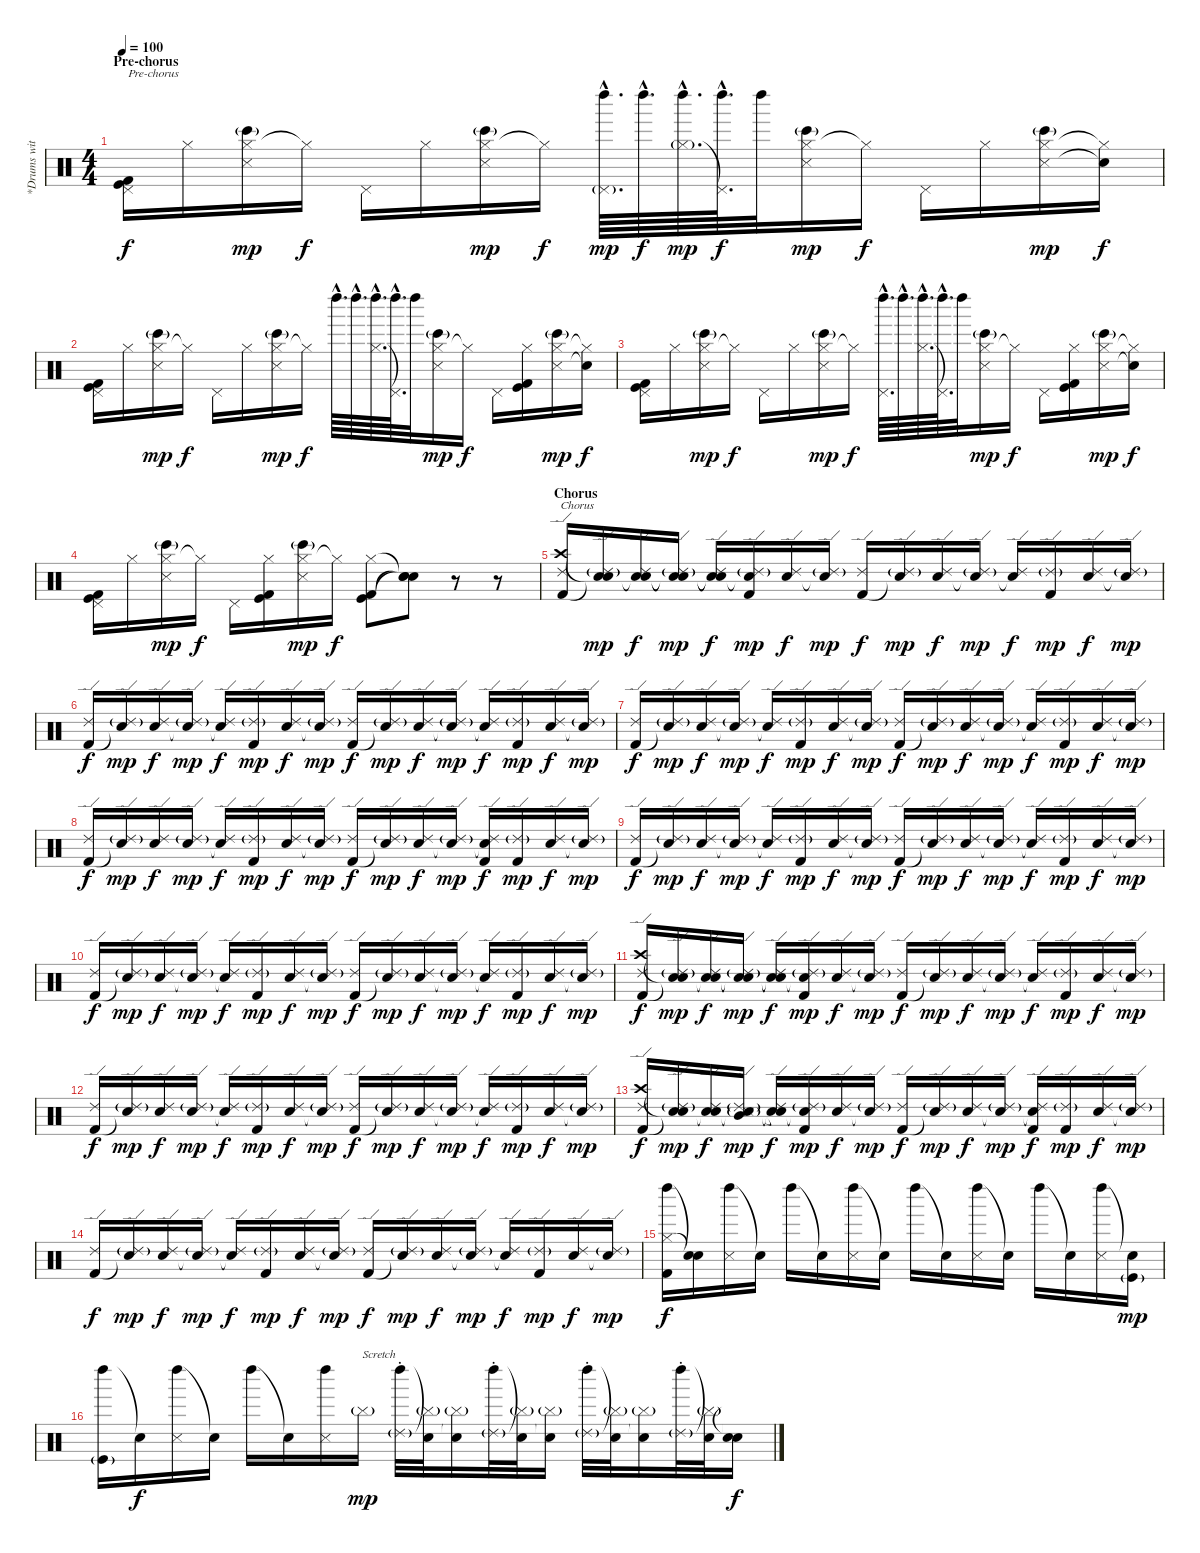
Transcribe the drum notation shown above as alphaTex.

\track ("*Drums with sampled drums (Rob and Joe)" "*Drums wit") {instrument percussion}
\staff {score}
\articulation defaults
\ts (4 4)
\section ("" "Pre-chorus")
\tempo 100
\clef neutral
\ks c
("Pedal Hi-Hat (hit)" "Kick (hit)" "Kick (hit) 2").16{txt "Pre-chorus" dy f} "Hi-Hat (closed)".16 ("Hi-Hat (closed)" "Snare (side stick) 3" "Bongo High (hit)"{g}).16{dy mp} "Hi-Hat (closed)"{t}.16{dy f} "Pedal Hi-Hat (hit)".16 "Hi-Hat (closed)".16 ("Hi-Hat (closed)" "Snare (side stick) 3" "Bongo High (hit)"{g}).16{dy mp} "Hi-Hat (closed)"{t}.16{dy f} ("Left Maraca (hit)"{hac} "Pedal Hi-Hat (hit)"{g hac}).64{d dy mp} "Left Maraca (hit)"{hac}.64{d dy f} ("Left Maraca (hit)"{hac} "Hi-Hat (closed)"{g hac}).64{d dy mp} ("Left Maraca (hit)"{hac} "Pedal Hi-Hat (hit)"{hac t}).64{d dy f} "Left Maraca (hit)".32 ("Hi-Hat (closed)" "Snare (side stick) 3" "Bongo High (hit)"{g}).16{dy mp} "Hi-Hat (closed)"{t}.16{dy f} "Pedal Hi-Hat (hit)".16 "Hi-Hat (closed)".16 ("Hi-Hat (closed)" "Snare (side stick) 3" "Bongo High (hit)"{g}).16{dy mp} ("Hi-Hat (closed)"{t} "Snare (hit)"{t}).16{dy f} |
("Pedal Hi-Hat (hit)" "Kick (hit)" "Kick (hit) 2").16 "Hi-Hat (closed)".16 ("Hi-Hat (closed)" "Snare (side stick) 3" "Bongo High (hit)"{g}).16{dy mp} "Hi-Hat (closed)"{t}.16{dy f} "Pedal Hi-Hat (hit)".16 "Hi-Hat (closed)".16 ("Hi-Hat (closed)" "Snare (side stick) 3" "Bongo High (hit)"{g}).16{dy mp} "Hi-Hat (closed)"{t}.16{dy f} "Left Maraca (hit)"{hac}.64{d} "Left Maraca (hit)"{hac}.64{d} ("Left Maraca (hit)"{hac} "Hi-Hat (closed)"{hac}).64{d} ("Left Maraca (hit)"{hac} "Pedal Hi-Hat (hit)"{hac t}).64{d} "Left Maraca (hit)".32 ("Hi-Hat (closed)" "Snare (side stick) 3" "Bongo High (hit)"{g}).16{dy mp} "Hi-Hat (closed)"{t}.16{dy f} "Pedal Hi-Hat (hit)".16 ("Hi-Hat (closed)" "Kick (hit)" "Kick (hit) 2").16 ("Hi-Hat (closed)" "Snare (side stick) 3" "Bongo High (hit)"{g}).16{dy mp} ("Hi-Hat (closed)"{t} "Snare (hit)"{t}).16{dy f} |
("Pedal Hi-Hat (hit)" "Kick (hit)" "Kick (hit) 2").16 "Hi-Hat (closed)".16 ("Hi-Hat (closed)" "Snare (side stick) 3" "Bongo High (hit)"{g}).16{dy mp} "Hi-Hat (closed)"{t}.16{dy f} "Pedal Hi-Hat (hit)".16 "Hi-Hat (closed)".16 ("Hi-Hat (closed)" "Snare (side stick) 3" "Bongo High (hit)"{g}).16{dy mp} "Hi-Hat (closed)"{t}.16{dy f} ("Left Maraca (hit)"{hac} "Pedal Hi-Hat (hit)"{hac}).64{d} "Left Maraca (hit)"{hac}.64{d} ("Left Maraca (hit)"{hac} "Hi-Hat (closed)"{hac}).64{d} ("Left Maraca (hit)"{hac} "Pedal Hi-Hat (hit)"{hac t}).64{d} "Left Maraca (hit)".32 ("Hi-Hat (closed)" "Snare (side stick) 3" "Bongo High (hit)"{g}).16{dy mp} "Hi-Hat (closed)"{t}.16{dy f} "Pedal Hi-Hat (hit)".16 ("Hi-Hat (closed)" "Kick (hit)" "Kick (hit) 2").16 ("Hi-Hat (closed)" "Snare (side stick) 3" "Bongo High (hit)"{g}).16{dy mp} ("Hi-Hat (closed)"{t} "Snare (hit)"{t}).16{dy f} |
("Pedal Hi-Hat (hit)" "Kick (hit)" "Kick (hit) 2").16 "Hi-Hat (closed)".16 ("Hi-Hat (closed)" "Snare (side stick) 3" "Bongo High (hit)"{g}).16{dy mp} "Hi-Hat (closed)"{t}.16{dy f} "Pedal Hi-Hat (hit)".16 ("Hi-Hat (closed)" "Kick (hit)" "Kick (hit) 2").16 ("Hi-Hat (closed)" "Snare (side stick) 3" "Bongo High (hit)"{g}).16{dy mp} "Hi-Hat (closed)"{t}.16{dy f} ("Hi-Hat (closed)" "Kick (hit)" "Kick (hit) 2").8 ("Snare (hit)"{t} "Snare (hit)"{t} "Snare (hit)"{t}).8 r.8 r.8 |
\section ("" "Chorus")
("Crash high (hit)" "Ride (edge) 2" "Kick (hit) 2").16{txt "Chorus"} ("Snare (hit)"{t} "Ride (edge) 2"{g} "Snare (hit)"{t}).16{dy mp} ("Snare (hit)"{t} "Ride (edge) 2" "Electric Snare (hit)").16{dy f} ("Snare (hit)"{t} "Ride (edge) 2"{g} "Snare (hit)"{t}).16{dy mp} ("Snare (hit)"{t} "Ride (edge) 2" "Snare (hit)"{t}).16{dy f} ("Snare (hit)"{t} "Ride (edge) 2"{g} "Kick (hit) 2").16{dy mp} ("Ride (edge) 2" "Electric Snare (hit)").16{dy f} ("Ride (edge) 2"{g} "Snare (hit)"{t}).16{dy mp} ("Ride (edge) 2" "Kick (hit) 2").16{dy f} ("Ride (edge) 2"{g} "Snare (hit)"{t}).16{dy mp} ("Ride (edge) 2" "Electric Snare (hit)").16{dy f} ("Ride (edge) 2"{g} "Snare (hit)"{t}).16{dy mp} ("Ride (edge) 2" "Snare (hit)"{t}).16{dy f} ("Ride (edge) 2"{g} "Kick (hit) 2").16{dy mp} ("Ride (edge) 2" "Electric Snare (hit)").16{dy f} ("Ride (edge) 2"{g} "Snare (hit)"{t}).16{dy mp} |
("Ride (edge) 2" "Kick (hit) 2").16{dy f} ("Ride (edge) 2"{g} "Snare (hit)"{t}).16{dy mp} ("Ride (edge) 2" "Electric Snare (hit)").16{dy f} ("Ride (edge) 2"{g} "Snare (hit)"{t}).16{dy mp} ("Ride (edge) 2" "Snare (hit)"{t}).16{dy f} ("Ride (edge) 2"{g} "Kick (hit) 2").16{dy mp} ("Ride (edge) 2" "Electric Snare (hit)").16{dy f} ("Ride (edge) 2"{g} "Snare (hit)"{t}).16{dy mp} ("Ride (edge) 2" "Kick (hit) 2").16{dy f} ("Ride (edge) 2"{g} "Snare (hit)"{t}).16{dy mp} ("Ride (edge) 2" "Electric Snare (hit)").16{dy f} ("Ride (edge) 2"{g} "Snare (hit)"{t}).16{dy mp} ("Ride (edge) 2" "Snare (hit)"{t}).16{dy f} ("Ride (edge) 2"{g} "Kick (hit) 2").16{dy mp} ("Ride (edge) 2" "Electric Snare (hit)").16{dy f} ("Ride (edge) 2"{g} "Snare (hit)"{t}).16{dy mp} |
("Ride (edge) 2" "Kick (hit) 2").16{dy f} ("Ride (edge) 2"{g} "Snare (hit)"{t}).16{dy mp} ("Ride (edge) 2" "Electric Snare (hit)").16{dy f} ("Ride (edge) 2"{g} "Snare (hit)"{t}).16{dy mp} ("Ride (edge) 2" "Snare (hit)"{t}).16{dy f} ("Ride (edge) 2"{g} "Kick (hit) 2").16{dy mp} ("Ride (edge) 2" "Electric Snare (hit)").16{dy f} ("Ride (edge) 2"{g} "Snare (hit)"{t}).16{dy mp} ("Ride (edge) 2" "Kick (hit) 2").16{dy f} ("Ride (edge) 2"{g} "Snare (hit)"{t}).16{dy mp} ("Ride (edge) 2" "Electric Snare (hit)").16{dy f} ("Ride (edge) 2"{g} "Snare (hit)"{t}).16{dy mp} ("Ride (edge) 2" "Snare (hit)"{t}).16{dy f} ("Ride (edge) 2"{g} "Kick (hit) 2").16{dy mp} ("Ride (edge) 2" "Electric Snare (hit)").16{dy f} ("Ride (edge) 2"{g} "Snare (hit)"{t}).16{dy mp} |
("Ride (edge) 2" "Kick (hit) 2").16{dy f} ("Ride (edge) 2"{g} "Snare (hit)"{t}).16{dy mp} ("Ride (edge) 2" "Electric Snare (hit)").16{dy f} ("Ride (edge) 2"{g} "Electric Snare (hit)").16{dy mp} ("Ride (edge) 2" "Snare (hit)"{t}).16{dy f} ("Ride (edge) 2"{g} "Kick (hit) 2").16{dy mp} ("Ride (edge) 2" "Electric Snare (hit)").16{dy f} ("Ride (edge) 2"{g} "Snare (hit)"{t}).16{dy mp} ("Ride (edge) 2" "Kick (hit) 2").16{dy f} ("Ride (edge) 2"{g} "Snare (hit)"{t}).16{dy mp} ("Ride (edge) 2" "Electric Snare (hit)").16{dy f} ("Ride (edge) 2"{g} "Snare (hit)"{t}).16{dy mp} ("Ride (edge) 2" "Snare (hit)"{t} "Kick (hit) 2").16{dy f} ("Ride (edge) 2"{g} "Kick (hit) 2").16{dy mp} ("Ride (edge) 2" "Electric Snare (hit)").16{dy f} ("Ride (edge) 2"{g} "Snare (hit)"{t}).16{dy mp} |
("Ride (edge) 2" "Kick (hit) 2").16{dy f} ("Ride (edge) 2"{g} "Snare (hit)"{t}).16{dy mp} ("Ride (edge) 2" "Electric Snare (hit)").16{dy f} ("Ride (edge) 2"{g} "Snare (hit)"{t}).16{dy mp} ("Ride (edge) 2" "Snare (hit)"{t}).16{dy f} ("Ride (edge) 2"{g} "Kick (hit) 2").16{dy mp} ("Ride (edge) 2" "Electric Snare (hit)").16{dy f} ("Ride (edge) 2"{g} "Snare (hit)"{t}).16{dy mp} ("Ride (edge) 2" "Kick (hit) 2").16{dy f} ("Ride (edge) 2"{g} "Snare (hit)"{t}).16{dy mp} ("Ride (edge) 2" "Electric Snare (hit)").16{dy f} ("Ride (edge) 2"{g} "Snare (hit)"{t}).16{dy mp} ("Ride (edge) 2" "Snare (hit)"{t}).16{dy f} ("Ride (edge) 2"{g} "Kick (hit) 2").16{dy mp} ("Ride (edge) 2" "Electric Snare (hit)").16{dy f} ("Ride (edge) 2"{g} "Snare (hit)"{t}).16{dy mp} |
("Ride (edge) 2" "Kick (hit) 2").16{dy f} ("Ride (edge) 2"{g} "Snare (hit)"{t}).16{dy mp} ("Ride (edge) 2" "Electric Snare (hit)").16{dy f} ("Ride (edge) 2"{g} "Snare (hit)"{t}).16{dy mp} ("Ride (edge) 2" "Snare (hit)"{t}).16{dy f} ("Ride (edge) 2"{g} "Kick (hit) 2").16{dy mp} ("Ride (edge) 2" "Electric Snare (hit)").16{dy f} ("Ride (edge) 2"{g} "Snare (hit)"{t}).16{dy mp} ("Ride (edge) 2" "Kick (hit) 2").16{dy f} ("Ride (edge) 2"{g} "Snare (hit)"{t}).16{dy mp} ("Ride (edge) 2" "Electric Snare (hit)").16{dy f} ("Ride (edge) 2"{g} "Snare (hit)"{t}).16{dy mp} ("Ride (edge) 2" "Snare (hit)"{t}).16{dy f} ("Ride (edge) 2"{g} "Kick (hit) 2").16{dy mp} ("Ride (edge) 2" "Electric Snare (hit)").16{dy f} ("Ride (edge) 2"{g} "Snare (hit)"{t}).16{dy mp} |
("Crash high (hit)" "Ride (edge) 2" "Kick (hit) 2").16{dy f} ("Snare (hit)"{t} "Ride (edge) 2"{g} "Snare (hit)"{t}).16{dy mp} ("Snare (hit)"{t} "Ride (edge) 2" "Electric Snare (hit)").16{dy f} ("Snare (hit)"{t} "Ride (edge) 2"{g} "Snare (hit)"{t}).16{dy mp} ("Snare (hit)"{t} "Ride (edge) 2" "Snare (hit)"{t}).16{dy f} ("Snare (hit)"{t} "Ride (edge) 2"{g} "Kick (hit) 2").16{dy mp} ("Ride (edge) 2" "Electric Snare (hit)").16{dy f} ("Ride (edge) 2"{g} "Snare (hit)"{t}).16{dy mp} ("Ride (edge) 2" "Kick (hit) 2").16{dy f} ("Ride (edge) 2"{g} "Snare (hit)"{t}).16{dy mp} ("Ride (edge) 2" "Electric Snare (hit)").16{dy f} ("Ride (edge) 2"{g} "Snare (hit)"{t}).16{dy mp} ("Ride (edge) 2" "Snare (hit)"{t}).16{dy f} ("Ride (edge) 2"{g} "Kick (hit) 2").16{dy mp} ("Ride (edge) 2" "Electric Snare (hit)").16{dy f} ("Ride (edge) 2"{g} "Snare (hit)"{t}).16{dy mp} |
("Ride (edge) 2" "Kick (hit) 2").16{dy f} ("Ride (edge) 2"{g} "Snare (hit)"{t}).16{dy mp} ("Ride (edge) 2" "Electric Snare (hit)").16{dy f} ("Ride (edge) 2"{g} "Electric Snare (hit)").16{dy mp} ("Ride (edge) 2" "Snare (hit)"{t}).16{dy f} ("Ride (edge) 2"{g} "Kick (hit) 2").16{dy mp} ("Ride (edge) 2" "Electric Snare (hit)").16{dy f} ("Ride (edge) 2"{g} "Snare (hit)"{t}).16{dy mp} ("Ride (edge) 2" "Kick (hit) 2").16{dy f} ("Ride (edge) 2"{g} "Snare (hit)"{t}).16{dy mp} ("Ride (edge) 2" "Electric Snare (hit)").16{dy f} ("Ride (edge) 2"{g} "Snare (hit)"{t}).16{dy mp} ("Ride (edge) 2" "Snare (hit)"{t}).16{dy f} ("Ride (edge) 2"{g} "Kick (hit) 2").16{dy mp} ("Ride (edge) 2" "Electric Snare (hit)").16{dy f} ("Ride (edge) 2"{g} "Snare (hit)"{t}).16{dy mp} |
("Crash high (hit)" "Ride (edge) 2" "Kick (hit) 2").16{dy f} ("Snare (hit)"{t} "Ride (edge) 2"{g} "Snare (hit)"{t}).16{dy mp} ("Snare (hit)"{t} "Ride (edge) 2" "Electric Snare (hit)").16{dy f} ("Snare (hit)"{t} "Ride (edge) 2"{g} "Mid Tom (hit)" "Metronome (hit)"{g}).16{dy mp} ("Snare (hit)"{t} "Ride (edge) 2" "Snare (hit)"{t}).16{dy f} ("Snare (hit)"{t} "Ride (edge) 2"{g} "Kick (hit) 2").16{dy mp} ("Ride (edge) 2" "Electric Snare (hit)").16{dy f} ("Ride (edge) 2"{g} "Snare (hit)"{t}).16{dy mp} ("Ride (edge) 2" "Kick (hit) 2").16{dy f} ("Ride (edge) 2"{g} "Snare (hit)"{t}).16{dy mp} ("Ride (edge) 2" "Electric Snare (hit)").16{dy f} ("Ride (edge) 2"{g} "Snare (hit)"{t}).16{dy mp} ("Ride (edge) 2" "Snare (hit)"{t} "Kick (hit) 2").16{dy f} ("Ride (edge) 2"{g} "Kick (hit) 2").16{dy mp} ("Ride (edge) 2" "Electric Snare (hit)").16{dy f} ("Ride (edge) 2"{g} "Snare (hit)"{t}).16{dy mp} |
("Ride (edge) 2" "Kick (hit) 2").16{dy f} ("Ride (edge) 2"{g} "Snare (hit)"{t}).16{dy mp} ("Ride (edge) 2" "Electric Snare (hit)").16{dy f} ("Ride (edge) 2"{g} "Snare (hit)"{t}).16{dy mp} ("Ride (edge) 2" "Snare (hit)"{t}).16{dy f} ("Ride (edge) 2"{g} "Kick (hit) 2").16{dy mp} ("Ride (edge) 2" "Electric Snare (hit)").16{dy f} ("Ride (edge) 2"{g} "Snare (hit)"{t}).16{dy mp} ("Ride (edge) 2" "Kick (hit) 2").16{dy f} ("Ride (edge) 2"{g} "Snare (hit)"{t}).16{dy mp} ("Ride (edge) 2" "Electric Snare (hit)").16{dy f} ("Ride (edge) 2"{g} "Snare (hit)"{t}).16{dy mp} ("Ride (edge) 2" "Snare (hit)"{t}).16{dy f} ("Ride (edge) 2"{g} "Kick (hit) 2").16{dy mp} ("Ride (edge) 2" "Electric Snare (hit)").16{dy f} ("Ride (edge) 2"{g} "Snare (hit)"{t}).16{dy mp} |
("Hi-Hat (closed)" "Left Maraca (hit)" "Kick (hit) 2").16{dy f volume 16} ("Snare (hit)"{t} "Snare (hit)"{t}).16 ("Left Maraca (hit)" "Snare (side stick) 3").16 "Snare (hit)"{t}.16 "Left Maraca (hit)".16 "Snare (hit)"{t}.16 ("Left Maraca (hit)" "Snare (side stick) 3").16 "Snare (hit)"{t}.16 "Left Maraca (hit)".16 "Snare (hit)"{t}.16 ("Left Maraca (hit)" "Snare (side stick) 3").16 "Snare (hit)"{t}.16 "Left Maraca (hit)".16 "Snare (hit)"{t}.16 ("Left Maraca (hit)" "Snare (side stick) 3").16 ("Snare (hit)"{t} "Kick (hit)"{g}).16{dy mp} |
("Left Maraca (hit)" "Kick (hit)"{g}).16 "Snare (hit)"{t}.16{dy f} ("Left Maraca (hit)" "Snare (side stick) 3").16 "Snare (hit)"{t}.16 "Left Maraca (hit)".16 "Snare (hit)"{t}.16 ("Left Maraca (hit)" "Snare (side stick) 3").16 "Cymbal (hit)"{g}.16{txt "Scretch" dy mp} ("Ride (choke) 2"{g} "Left Maraca (hit)").32 ("Cymbal (hit)"{g} "Snare (hit)"{t}).32 ("Cymbal (hit)"{g} "Snare (hit)"{t}).16 ("Ride (choke) 2"{g} "Left Maraca (hit)").32 ("Cymbal (hit)"{g} "Snare (hit)"{t}).32 ("Cymbal (hit)"{g} "Snare (hit)"{t}).16 ("Ride (choke) 2"{g} "Left Maraca (hit)").32 ("Cymbal (hit)"{g} "Snare (hit)"{t}).32 ("Cymbal (hit)"{g} "Snare (hit)"{t}).16 ("Ride (choke) 2"{g} "Left Maraca (hit)").32 ("Cymbal (hit)"{g} "Snare (hit)"{t}).32 ("Snare (hit)"{t} "Snare (hit)"{t}).16{dy f}
